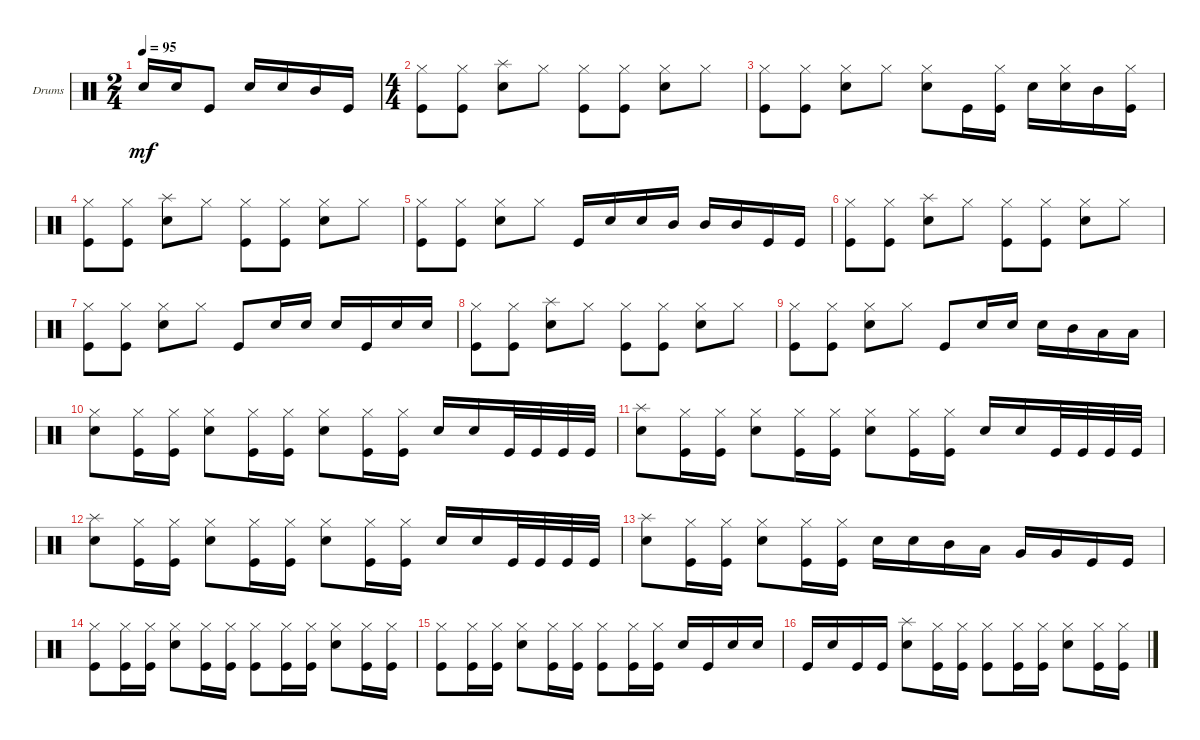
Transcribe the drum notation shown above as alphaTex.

\defaultSystemsLayout 4
\bracketExtendMode groupsimilarinstruments
\firstSystemTrackNameOrientation horizontal
\otherSystemsTrackNameOrientation horizontal
\track ("Drumkit" "Drums") {instrument percussion}
\staff {score}
\articulation defaults
\ts (2 4)
\tempo 95
\clef neutral
\ks c "Snare (hit) 2".16{dy mf} "Snare (hit) 2".16 "Kick (hit)".8 "Snare (hit) 2".16 "Snare (hit) 2".16 "Mid Tom (hit)".16 "Kick (hit)".16
|
\ts (4 4)
("Kick (hit)" "Hi-Hat (closed)").8 ("Hi-Hat (closed)" "Kick (hit)").8 ("Snare (hit) 2" "Splash (hit)").8 "Hi-Hat (closed)".8 ("Hi-Hat (closed)" "Kick (hit)").8 ("Hi-Hat (closed)" "Kick (hit)").8 ("Hi-Hat (closed)" "Snare (hit) 2").8 "Hi-Hat (closed)".8 |
("Hi-Hat (closed)" "Kick (hit)").8 ("Hi-Hat (closed)" "Kick (hit)").8 ("Snare (hit) 2" "Hi-Hat (closed)").8 "Hi-Hat (closed)".8 ("Snare (hit) 2" "Hi-Hat (closed)").8 "Kick (hit)".16 ("Kick (hit)" "Hi-Hat (closed)").16 "Snare (hit) 2".16 ("Snare (hit) 2" "Hi-Hat (closed)").16 "Mid Tom (hit)".16 ("Kick (hit)" "Hi-Hat (closed)").16 |
("Kick (hit)" "Hi-Hat (closed)").8 ("Hi-Hat (closed)" "Kick (hit)").8 ("Snare (hit) 2" "Splash (hit)").8 "Hi-Hat (closed)".8 ("Hi-Hat (closed)" "Kick (hit)").8 ("Hi-Hat (closed)" "Kick (hit)").8 ("Hi-Hat (closed)" "Snare (hit) 2").8 "Hi-Hat (closed)".8 |
("Hi-Hat (closed)" "Kick (hit)").8 ("Hi-Hat (closed)" "Kick (hit)").8 ("Snare (hit) 2" "Hi-Hat (closed)").8 "Hi-Hat (closed)".8 "Kick (hit)".16 "Snare (hit) 2".16 "Snare (hit) 2".16 "Mid Tom (hit)".16 "Mid Tom (hit)".16 "Mid Tom (hit)".16 "Kick (hit)".16 "Kick (hit)".16 |
("Kick (hit)" "Hi-Hat (closed)").8 ("Hi-Hat (closed)" "Kick (hit)").8 ("Snare (hit) 2" "Splash (hit)").8 "Hi-Hat (closed)".8 ("Hi-Hat (closed)" "Kick (hit)").8 ("Hi-Hat (closed)" "Kick (hit)").8 ("Hi-Hat (closed)" "Snare (hit) 2").8 "Hi-Hat (closed)".8 |
("Hi-Hat (closed)" "Kick (hit)").8 ("Hi-Hat (closed)" "Kick (hit)").8 ("Snare (hit) 2" "Hi-Hat (closed)").8 "Hi-Hat (closed)".8 "Kick (hit)".8 "Snare (hit) 2".16 "Snare (hit) 2".16 "Snare (hit) 2".16 "Kick (hit)".16 "Snare (hit) 2".16 "Snare (hit) 2".16 |
("Kick (hit)" "Hi-Hat (closed)").8 ("Hi-Hat (closed)" "Kick (hit)").8 ("Snare (hit) 2" "Splash (hit)").8 "Hi-Hat (closed)".8 ("Hi-Hat (closed)" "Kick (hit)").8 ("Hi-Hat (closed)" "Kick (hit)").8 ("Hi-Hat (closed)" "Snare (hit) 2").8 "Hi-Hat (closed)".8 |
("Hi-Hat (closed)" "Kick (hit)").8 ("Hi-Hat (closed)" "Kick (hit)").8 ("Snare (hit) 2" "Hi-Hat (closed)").8 "Hi-Hat (closed)".8 "Kick (hit)".8 "Snare (hit) 2".16 "Snare (hit) 2".16 "Snare (hit) 2".16 "Mid Tom (hit)".16 "Low Tom (hit)".16 "Low Tom (hit)".16 |
("Snare (hit) 2" "Hi-Hat (closed)").8 ("Kick (hit)" "Hi-Hat (closed)").16 ("Kick (hit)" "Hi-Hat (closed)").16 ("Snare (hit) 2" "Hi-Hat (closed)").8 ("Kick (hit)" "Hi-Hat (closed)").16 ("Kick (hit)" "Hi-Hat (closed)").16 ("Snare (hit) 2" "Hi-Hat (closed)").8 ("Kick (hit)" "Hi-Hat (closed)").16 ("Kick (hit)" "Hi-Hat (closed)").16 "Snare (hit) 2".16 "Snare (hit) 2".16 "Kick (hit)".32 "Kick (hit)".32 "Kick (hit)".32 "Kick (hit)".32 |
("Snare (hit) 2" "Splash (hit)").8 ("Kick (hit)" "Hi-Hat (closed)").16 ("Kick (hit)" "Hi-Hat (closed)").16 ("Snare (hit) 2" "Hi-Hat (closed)").8 ("Kick (hit)" "Hi-Hat (closed)").16 ("Kick (hit)" "Hi-Hat (closed)").16 ("Snare (hit) 2" "Hi-Hat (closed)").8 ("Kick (hit)" "Hi-Hat (closed)").16 ("Kick (hit)" "Hi-Hat (closed)").16 "Snare (hit) 2".16 "Snare (hit) 2".16 "Kick (hit)".32 "Kick (hit)".32 "Kick (hit)".32 "Kick (hit)".32 |
("Snare (hit) 2" "Splash (hit)").8 ("Kick (hit)" "Hi-Hat (closed)").16 ("Kick (hit)" "Hi-Hat (closed)").16 ("Snare (hit) 2" "Hi-Hat (closed)").8 ("Kick (hit)" "Hi-Hat (closed)").16 ("Kick (hit)" "Hi-Hat (closed)").16 ("Snare (hit) 2" "Hi-Hat (closed)").8 ("Kick (hit)" "Hi-Hat (closed)").16 ("Kick (hit)" "Hi-Hat (closed)").16 "Snare (hit) 2".16 "Snare (hit) 2".16 "Kick (hit)".32 "Kick (hit)".32 "Kick (hit)".32 "Kick (hit)".32 |
("Snare (hit) 2" "Splash (hit)").8 ("Kick (hit)" "Hi-Hat (closed)").16 ("Kick (hit)" "Hi-Hat (closed)").16 ("Snare (hit) 2" "Hi-Hat (closed)").8 ("Kick (hit)" "Hi-Hat (closed)").16 ("Kick (hit)" "Hi-Hat (closed)").16 "Snare (hit) 2".16 "Snare (hit) 2".16 "Mid Tom (hit)".16 "Low Tom (hit)".16 "Very Low Tom (hit)".16 "Very Low Tom (hit)".16 "Kick (hit)".16 "Kick (hit)".16 |
("Kick (hit)" "Hi-Hat (closed)").8 ("Kick (hit)" "Hi-Hat (closed)").16 ("Kick (hit)" "Hi-Hat (closed)").16 ("Snare (hit) 2" "Hi-Hat (closed)").8 ("Kick (hit)" "Hi-Hat (closed)").16 ("Kick (hit)" "Hi-Hat (closed)").16 ("Kick (hit)" "Hi-Hat (closed)").8 ("Kick (hit)" "Hi-Hat (closed)").16 ("Kick (hit)" "Hi-Hat (closed)").16 ("Snare (hit) 2" "Hi-Hat (closed)").8 ("Kick (hit)" "Hi-Hat (closed)").16 ("Kick (hit)" "Hi-Hat (closed)").16 |
("Kick (hit)" "Hi-Hat (closed)").8 ("Kick (hit)" "Hi-Hat (closed)").16 ("Kick (hit)" "Hi-Hat (closed)").16 ("Hi-Hat (closed)" "Snare (hit) 2").8 ("Kick (hit)" "Hi-Hat (closed)").16 ("Kick (hit)" "Hi-Hat (closed)").16 ("Kick (hit)" "Hi-Hat (closed)").8 ("Kick (hit)" "Hi-Hat (closed)").16 ("Kick (hit)" "Hi-Hat (closed)").16 "Snare (hit) 2".16 "Kick (hit)".16 "Snare (hit) 2".16 "Snare (hit) 2".16 |
"Kick (hit)".16 "Snare (hit) 2".16 "Kick (hit)".16 "Kick (hit)".16 ("Snare (hit) 2" "Splash (hit)").8 ("Kick (hit)" "Hi-Hat (closed)").16 ("Kick (hit)" "Hi-Hat (closed)").16 ("Kick (hit)" "Hi-Hat (closed)").8 ("Kick (hit)" "Hi-Hat (closed)").16 ("Kick (hit)" "Hi-Hat (closed)").16 ("Snare (hit) 2" "Hi-Hat (closed)").8 ("Kick (hit)" "Hi-Hat (closed)").16 ("Kick (hit)" "Hi-Hat (closed)").16
